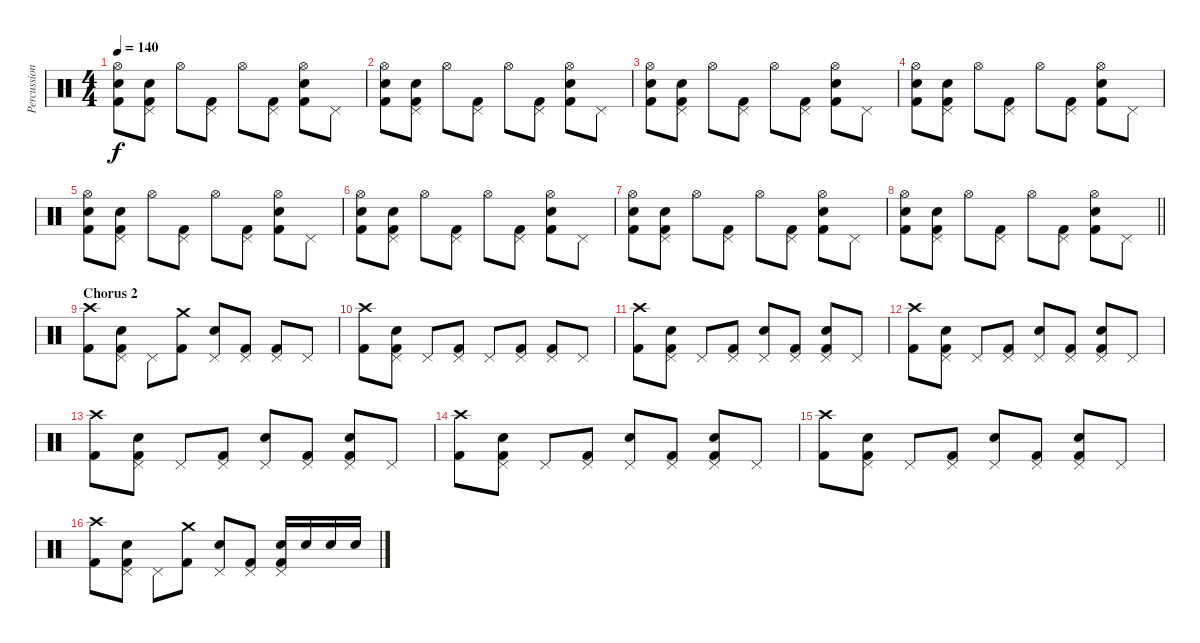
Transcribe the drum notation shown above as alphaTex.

\track ("Percussion" "Percussion") {instrument percussion}
\staff {score}
\articulation defaults
\ts (4 4)
\tempo 140
\clef neutral
\ks c
("Hi-Hat (open)" "Electric Snare (hit)" "Kick (hit) 2").8{dy f} ("Pedal Hi-Hat (hit)" "Electric Snare (hit)" "Kick (hit) 2").8 "Hi-Hat (open)".8 ("Pedal Hi-Hat (hit)" "Kick (hit) 2").8 "Hi-Hat (open)".8 ("Pedal Hi-Hat (hit)" "Kick (hit) 2").8 ("Hi-Hat (open)" "Electric Snare (hit)" "Kick (hit) 2").8 "Pedal Hi-Hat (hit)".8 |
("Hi-Hat (open)" "Electric Snare (hit)" "Kick (hit) 2").8 ("Pedal Hi-Hat (hit)" "Electric Snare (hit)" "Kick (hit) 2").8 "Hi-Hat (open)".8 ("Pedal Hi-Hat (hit)" "Kick (hit) 2").8 "Hi-Hat (open)".8 ("Pedal Hi-Hat (hit)" "Kick (hit) 2").8 ("Hi-Hat (open)" "Electric Snare (hit)" "Kick (hit) 2").8 "Pedal Hi-Hat (hit)".8 |
("Hi-Hat (open)" "Electric Snare (hit)" "Kick (hit) 2").8 ("Pedal Hi-Hat (hit)" "Electric Snare (hit)" "Kick (hit) 2").8 "Hi-Hat (open)".8 ("Pedal Hi-Hat (hit)" "Kick (hit) 2").8 "Hi-Hat (open)".8 ("Pedal Hi-Hat (hit)" "Kick (hit) 2").8 ("Hi-Hat (open)" "Electric Snare (hit)" "Kick (hit) 2").8 "Pedal Hi-Hat (hit)".8 |
("Hi-Hat (open)" "Electric Snare (hit)" "Kick (hit) 2").8 ("Pedal Hi-Hat (hit)" "Electric Snare (hit)" "Kick (hit) 2").8 "Hi-Hat (open)".8 ("Pedal Hi-Hat (hit)" "Kick (hit) 2").8 "Hi-Hat (open)".8 ("Pedal Hi-Hat (hit)" "Kick (hit) 2").8 ("Hi-Hat (open)" "Electric Snare (hit)" "Kick (hit) 2").8 "Pedal Hi-Hat (hit)".8 |
("Hi-Hat (open)" "Electric Snare (hit)" "Kick (hit) 2").8 ("Pedal Hi-Hat (hit)" "Electric Snare (hit)" "Kick (hit) 2").8 "Hi-Hat (open)".8 ("Pedal Hi-Hat (hit)" "Kick (hit) 2").8 "Hi-Hat (open)".8 ("Pedal Hi-Hat (hit)" "Kick (hit) 2").8 ("Hi-Hat (open)" "Electric Snare (hit)" "Kick (hit) 2").8 "Pedal Hi-Hat (hit)".8 |
("Hi-Hat (open)" "Electric Snare (hit)" "Kick (hit) 2").8 ("Pedal Hi-Hat (hit)" "Electric Snare (hit)" "Kick (hit) 2").8 "Hi-Hat (open)".8 ("Pedal Hi-Hat (hit)" "Kick (hit) 2").8 "Hi-Hat (open)".8 ("Pedal Hi-Hat (hit)" "Kick (hit) 2").8 ("Hi-Hat (open)" "Electric Snare (hit)" "Kick (hit) 2").8 "Pedal Hi-Hat (hit)".8 |
("Hi-Hat (open)" "Electric Snare (hit)" "Kick (hit) 2").8 ("Pedal Hi-Hat (hit)" "Electric Snare (hit)" "Kick (hit) 2").8 "Hi-Hat (open)".8 ("Pedal Hi-Hat (hit)" "Kick (hit) 2").8 "Hi-Hat (open)".8 ("Pedal Hi-Hat (hit)" "Kick (hit) 2").8 ("Hi-Hat (open)" "Electric Snare (hit)" "Kick (hit) 2").8 "Pedal Hi-Hat (hit)".8 |
\barLineRight lightlight
("Hi-Hat (open)" "Electric Snare (hit)" "Kick (hit) 2").8 ("Pedal Hi-Hat (hit)" "Electric Snare (hit)" "Kick (hit) 2").8 "Hi-Hat (open)".8 ("Pedal Hi-Hat (hit)" "Kick (hit) 2").8 "Hi-Hat (open)".8 ("Pedal Hi-Hat (hit)" "Kick (hit) 2").8 ("Hi-Hat (open)" "Electric Snare (hit)" "Kick (hit) 2").8 "Pedal Hi-Hat (hit)".8 |
\section ("" "Chorus 2")
("Crash high (hit)" "Kick (hit) 2").8 ("Pedal Hi-Hat (hit)" "Electric Snare (hit)" "Kick (hit) 2").8 "Pedal Hi-Hat (hit)".8 ("Crash medium (hit)" "Kick (hit) 2").8 ("Pedal Hi-Hat (hit)" "Electric Snare (hit)").8 ("Pedal Hi-Hat (hit)" "Kick (hit) 2").8 ("Pedal Hi-Hat (hit)" "Kick (hit) 2").8 "Pedal Hi-Hat (hit)".8 |
("Crash high (hit)" "Kick (hit) 2").8 ("Pedal Hi-Hat (hit)" "Electric Snare (hit)" "Kick (hit) 2").8 "Pedal Hi-Hat (hit)".8 ("Pedal Hi-Hat (hit)" "Kick (hit) 2").8 "Pedal Hi-Hat (hit)".8 ("Pedal Hi-Hat (hit)" "Kick (hit) 2").8 ("Pedal Hi-Hat (hit)" "Kick (hit) 2").8 "Pedal Hi-Hat (hit)".8 |
("Crash high (hit)" "Kick (hit) 2").8 ("Pedal Hi-Hat (hit)" "Electric Snare (hit)" "Kick (hit) 2").8 "Pedal Hi-Hat (hit)".8 ("Pedal Hi-Hat (hit)" "Kick (hit) 2").8 ("Pedal Hi-Hat (hit)" "Electric Snare (hit)").8 ("Pedal Hi-Hat (hit)" "Kick (hit) 2").8 ("Pedal Hi-Hat (hit)" "Electric Snare (hit)" "Kick (hit) 2").8 "Pedal Hi-Hat (hit)".8 |
("Crash high (hit)" "Kick (hit) 2").8 ("Pedal Hi-Hat (hit)" "Electric Snare (hit)" "Kick (hit) 2").8 "Pedal Hi-Hat (hit)".8 ("Pedal Hi-Hat (hit)" "Kick (hit) 2").8 ("Pedal Hi-Hat (hit)" "Electric Snare (hit)").8 ("Pedal Hi-Hat (hit)" "Kick (hit) 2").8 ("Pedal Hi-Hat (hit)" "Electric Snare (hit)" "Kick (hit) 2").8 "Pedal Hi-Hat (hit)".8 |
("Crash high (hit)" "Kick (hit) 2").8 ("Pedal Hi-Hat (hit)" "Electric Snare (hit)" "Kick (hit) 2").8 "Pedal Hi-Hat (hit)".8 ("Pedal Hi-Hat (hit)" "Kick (hit) 2").8 ("Pedal Hi-Hat (hit)" "Electric Snare (hit)").8 ("Pedal Hi-Hat (hit)" "Kick (hit) 2").8 ("Pedal Hi-Hat (hit)" "Electric Snare (hit)" "Kick (hit) 2").8 "Pedal Hi-Hat (hit)".8 |
("Crash high (hit)" "Kick (hit) 2").8 ("Pedal Hi-Hat (hit)" "Electric Snare (hit)" "Kick (hit) 2").8 "Pedal Hi-Hat (hit)".8 ("Pedal Hi-Hat (hit)" "Kick (hit) 2").8 ("Pedal Hi-Hat (hit)" "Electric Snare (hit)").8 ("Pedal Hi-Hat (hit)" "Kick (hit) 2").8 ("Pedal Hi-Hat (hit)" "Electric Snare (hit)" "Kick (hit) 2").8 "Pedal Hi-Hat (hit)".8 |
("Crash high (hit)" "Kick (hit) 2").8 ("Pedal Hi-Hat (hit)" "Electric Snare (hit)" "Kick (hit) 2").8 "Pedal Hi-Hat (hit)".8 ("Pedal Hi-Hat (hit)" "Kick (hit) 2").8 ("Pedal Hi-Hat (hit)" "Electric Snare (hit)").8 ("Pedal Hi-Hat (hit)" "Kick (hit) 2").8 ("Pedal Hi-Hat (hit)" "Electric Snare (hit)" "Kick (hit) 2").8 "Pedal Hi-Hat (hit)".8 |
("Crash high (hit)" "Kick (hit) 2").8 ("Pedal Hi-Hat (hit)" "Electric Snare (hit)" "Kick (hit) 2").8 "Pedal Hi-Hat (hit)".8 ("Crash medium (hit)" "Kick (hit) 2").8 ("Pedal Hi-Hat (hit)" "Electric Snare (hit)").8 ("Pedal Hi-Hat (hit)" "Kick (hit) 2").8 ("Pedal Hi-Hat (hit)" "Electric Snare (hit)" "Kick (hit) 2").16 "Electric Snare (hit)".16 "Electric Snare (hit)".16 "Electric Snare (hit)".16
